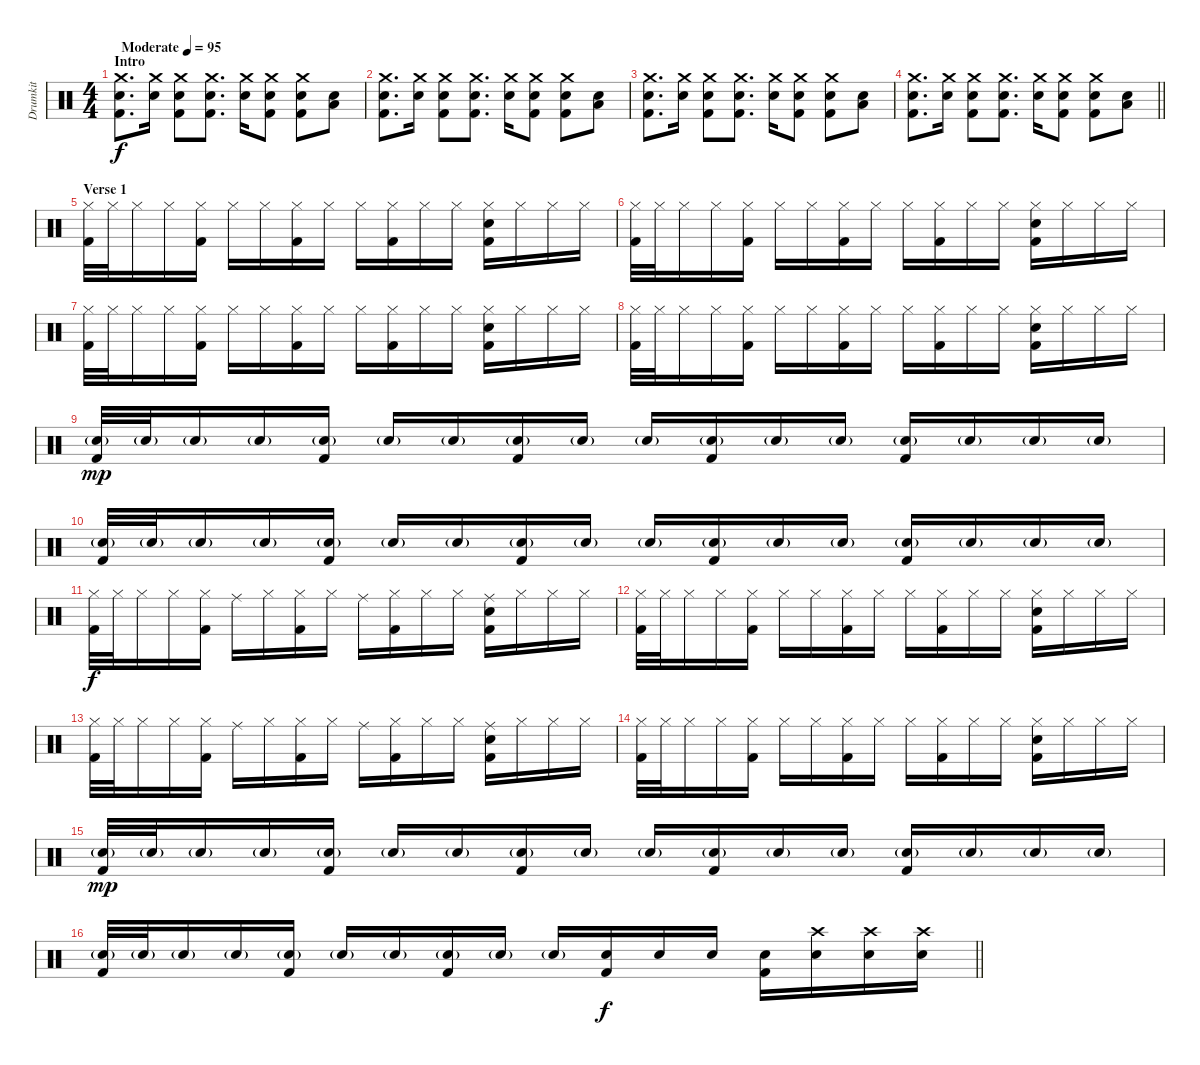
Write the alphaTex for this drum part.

\track ("Drumkit" "Drumkit") {instrument percussion}
\staff {score}
\articulation defaults
\ts (4 4)
\section ("" "Intro")
\tempo (95 "Moderate")
\clef neutral
\ks c
("Crash medium (hit)" "Snare (hit) 2" "Kick (hit) 2").8{d dy f} ("Crash medium (hit)" "Snare (hit) 2").16 ("Crash medium (hit)" "Snare (hit) 2" "Kick (hit) 2").8 ("Crash medium (hit)" "Snare (hit) 2" "Kick (hit) 2").8{d} ("Crash medium (hit)" "Snare (hit) 2").16 ("Crash medium (hit)" "Snare (hit) 2" "Kick (hit) 2").8 ("Crash medium (hit)" "Snare (hit) 2" "Kick (hit) 2").8 ("Low Floor Tom (hit)" "Snare (hit) 2").8 |
("Crash medium (hit)" "Snare (hit) 2" "Kick (hit) 2").8{d} ("Crash medium (hit)" "Snare (hit) 2").16 ("Crash medium (hit)" "Snare (hit) 2" "Kick (hit) 2").8 ("Crash medium (hit)" "Snare (hit) 2" "Kick (hit) 2").8{d} ("Crash medium (hit)" "Snare (hit) 2").16 ("Crash medium (hit)" "Snare (hit) 2" "Kick (hit) 2").8 ("Crash medium (hit)" "Snare (hit) 2" "Kick (hit) 2").8 ("Snare (hit) 2" "Low Floor Tom (hit)").8 |
("Crash medium (hit)" "Snare (hit) 2" "Kick (hit) 2").8{d} ("Crash medium (hit)" "Snare (hit) 2").16 ("Crash medium (hit)" "Snare (hit) 2" "Kick (hit) 2").8 ("Crash medium (hit)" "Snare (hit) 2" "Kick (hit) 2").8{d} ("Crash medium (hit)" "Snare (hit) 2").16 ("Crash medium (hit)" "Snare (hit) 2" "Kick (hit) 2").8 ("Crash medium (hit)" "Snare (hit) 2" "Kick (hit) 2").8 ("Low Floor Tom (hit)" "Snare (hit) 2").8 |
\barLineRight lightlight
("Crash medium (hit)" "Snare (hit) 2" "Kick (hit) 2").8{d} ("Crash medium (hit)" "Snare (hit) 2").16 ("Crash medium (hit)" "Snare (hit) 2" "Kick (hit) 2").8 ("Crash medium (hit)" "Snare (hit) 2" "Kick (hit) 2").8{d} ("Crash medium (hit)" "Snare (hit) 2").16 ("Crash medium (hit)" "Snare (hit) 2" "Kick (hit) 2").8 ("Crash medium (hit)" "Snare (hit) 2" "Kick (hit) 2").8 ("Snare (hit) 2" "Low Floor Tom (hit)").8 |
\section ("" "Verse 1")
("Hi-Hat (closed)" "Kick (hit) 2").32 "Hi-Hat (closed)".32 "Hi-Hat (closed)".16 "Hi-Hat (closed)".16 ("Hi-Hat (closed)" "Kick (hit) 2").16 "Hi-Hat (closed)".16 "Hi-Hat (closed)".16 ("Hi-Hat (closed)" "Kick (hit) 2").16 "Hi-Hat (closed)".16 "Hi-Hat (closed)".16 ("Hi-Hat (closed)" "Kick (hit) 2").16 "Hi-Hat (closed)".16 "Hi-Hat (closed)".16 ("Hi-Hat (closed)" "Snare (hit) 2" "Kick (hit) 2").16 "Hi-Hat (closed)".16 "Hi-Hat (closed)".16 "Hi-Hat (closed)".16 |
("Hi-Hat (closed)" "Kick (hit) 2").32 "Hi-Hat (closed)".32 "Hi-Hat (closed)".16 "Hi-Hat (closed)".16 ("Hi-Hat (closed)" "Kick (hit) 2").16 "Hi-Hat (closed)".16 "Hi-Hat (closed)".16 ("Hi-Hat (closed)" "Kick (hit) 2").16 "Hi-Hat (closed)".16 "Hi-Hat (closed)".16 ("Hi-Hat (closed)" "Kick (hit) 2").16 "Hi-Hat (closed)".16 "Hi-Hat (closed)".16 ("Hi-Hat (closed)" "Snare (hit) 2" "Kick (hit) 2").16 "Hi-Hat (closed)".16 "Hi-Hat (closed)".16 "Hi-Hat (closed)".16 |
("Hi-Hat (closed)" "Kick (hit) 2").32 "Hi-Hat (closed)".32 "Hi-Hat (closed)".16 "Hi-Hat (closed)".16 ("Hi-Hat (closed)" "Kick (hit) 2").16 "Hi-Hat (closed)".16 "Hi-Hat (closed)".16 ("Hi-Hat (closed)" "Kick (hit) 2").16 "Hi-Hat (closed)".16 "Hi-Hat (closed)".16 ("Hi-Hat (closed)" "Kick (hit) 2").16 "Hi-Hat (closed)".16 "Hi-Hat (closed)".16 ("Hi-Hat (closed)" "Snare (hit) 2" "Kick (hit) 2").16 "Hi-Hat (closed)".16 "Hi-Hat (closed)".16 "Hi-Hat (closed)".16 |
("Hi-Hat (closed)" "Kick (hit) 2").32 "Hi-Hat (closed)".32 "Hi-Hat (closed)".16 "Hi-Hat (closed)".16 ("Hi-Hat (closed)" "Kick (hit) 2").16 "Hi-Hat (closed)".16 "Hi-Hat (closed)".16 ("Hi-Hat (closed)" "Kick (hit) 2").16 "Hi-Hat (closed)".16 "Hi-Hat (closed)".16 ("Hi-Hat (closed)" "Kick (hit) 2").16 "Hi-Hat (closed)".16 "Hi-Hat (closed)".16 ("Hi-Hat (closed)" "Snare (hit) 2" "Kick (hit) 2").16 "Hi-Hat (closed)".16 "Hi-Hat (closed)".16 "Hi-Hat (closed)".16 |
("Snare (hit) 2"{g} "Kick (hit) 2").32{dy mp} "Snare (hit) 2"{g}.32 "Snare (hit) 2"{g}.16 "Snare (hit) 2"{g}.16 ("Snare (hit) 2"{g} "Kick (hit) 2").16 "Snare (hit) 2"{g}.16 "Snare (hit) 2"{g}.16 ("Snare (hit) 2"{g} "Kick (hit) 2").16 "Snare (hit) 2"{g}.16 "Snare (hit) 2"{g}.16 ("Snare (hit) 2"{g} "Kick (hit) 2").16 "Snare (hit) 2"{g}.16 "Snare (hit) 2"{g}.16 ("Snare (hit) 2"{g} "Kick (hit) 2").16 "Snare (hit) 2"{g}.16 "Snare (hit) 2"{g}.16 "Snare (hit) 2"{g}.16 |
("Snare (hit) 2"{g} "Kick (hit) 2").32 "Snare (hit) 2"{g}.32 "Snare (hit) 2"{g}.16 "Snare (hit) 2"{g}.16 ("Snare (hit) 2"{g} "Kick (hit) 2").16 "Snare (hit) 2"{g}.16 "Snare (hit) 2"{g}.16 ("Snare (hit) 2"{g} "Kick (hit) 2").16 "Snare (hit) 2"{g}.16 "Snare (hit) 2"{g}.16 ("Snare (hit) 2"{g} "Kick (hit) 2").16 "Snare (hit) 2"{g}.16 "Snare (hit) 2"{g}.16 ("Snare (hit) 2"{g} "Kick (hit) 2").16 "Snare (hit) 2"{g}.16 "Snare (hit) 2"{g}.16 "Snare (hit) 2"{g}.16 |
("Hi-Hat (closed)" "Kick (hit) 2").32{dy f} "Hi-Hat (closed)".32 "Hi-Hat (closed)".16 "Hi-Hat (closed)".16 ("Hi-Hat (closed)" "Kick (hit) 2").16 "Ride (middle)".16 "Hi-Hat (closed)".16 ("Hi-Hat (closed)" "Kick (hit) 2").16 "Hi-Hat (closed)".16 "Ride (middle)".16 ("Hi-Hat (closed)" "Kick (hit) 2").16 "Hi-Hat (closed)".16 "Hi-Hat (closed)".16 ("Ride (middle)" "Snare (hit) 2" "Kick (hit) 2").16 "Hi-Hat (closed)".16 "Hi-Hat (closed)".16 "Hi-Hat (closed)".16 |
("Hi-Hat (closed)" "Kick (hit) 2").32 "Hi-Hat (closed)".32 "Hi-Hat (closed)".16 "Hi-Hat (closed)".16 ("Hi-Hat (closed)" "Kick (hit) 2").16 "Hi-Hat (closed)".16 "Hi-Hat (closed)".16 ("Hi-Hat (closed)" "Kick (hit) 2").16 "Hi-Hat (closed)".16 "Hi-Hat (closed)".16 ("Hi-Hat (closed)" "Kick (hit) 2").16 "Hi-Hat (closed)".16 "Hi-Hat (closed)".16 ("Hi-Hat (closed)" "Snare (hit) 2" "Kick (hit) 2").16 "Hi-Hat (closed)".16 "Hi-Hat (closed)".16 "Hi-Hat (closed)".16 |
("Hi-Hat (closed)" "Kick (hit) 2").32 "Hi-Hat (closed)".32 "Hi-Hat (closed)".16 "Hi-Hat (closed)".16 ("Hi-Hat (closed)" "Kick (hit) 2").16 "Ride (middle)".16 "Hi-Hat (closed)".16 ("Hi-Hat (closed)" "Kick (hit) 2").16 "Hi-Hat (closed)".16 "Ride (middle)".16 ("Hi-Hat (closed)" "Kick (hit) 2").16 "Hi-Hat (closed)".16 "Hi-Hat (closed)".16 ("Ride (middle)" "Snare (hit) 2" "Kick (hit) 2").16 "Hi-Hat (closed)".16 "Hi-Hat (closed)".16 "Hi-Hat (closed)".16 |
("Hi-Hat (closed)" "Kick (hit) 2").32 "Hi-Hat (closed)".32 "Hi-Hat (closed)".16 "Hi-Hat (closed)".16 ("Hi-Hat (closed)" "Kick (hit) 2").16 "Hi-Hat (closed)".16 "Hi-Hat (closed)".16 ("Hi-Hat (closed)" "Kick (hit) 2").16 "Hi-Hat (closed)".16 "Hi-Hat (closed)".16 ("Hi-Hat (closed)" "Kick (hit) 2").16 "Hi-Hat (closed)".16 "Hi-Hat (closed)".16 ("Hi-Hat (closed)" "Snare (hit) 2" "Kick (hit) 2").16 "Hi-Hat (closed)".16 "Hi-Hat (closed)".16 "Hi-Hat (closed)".16 |
("Snare (hit) 2"{g} "Kick (hit) 2").32{dy mp} "Snare (hit) 2"{g}.32 "Snare (hit) 2"{g}.16 "Snare (hit) 2"{g}.16 ("Snare (hit) 2"{g} "Kick (hit) 2").16 "Snare (hit) 2"{g}.16 "Snare (hit) 2"{g}.16 ("Snare (hit) 2"{g} "Kick (hit) 2").16 "Snare (hit) 2"{g}.16 "Snare (hit) 2"{g}.16 ("Snare (hit) 2"{g} "Kick (hit) 2").16 "Snare (hit) 2"{g}.16 "Snare (hit) 2"{g}.16 ("Snare (hit) 2"{g} "Kick (hit) 2").16 "Snare (hit) 2"{g}.16 "Snare (hit) 2"{g}.16 "Snare (hit) 2"{g}.16 |
\barLineRight lightlight
("Snare (hit) 2"{g} "Kick (hit) 2").32 "Snare (hit) 2"{g}.32 "Snare (hit) 2"{g}.16 "Snare (hit) 2"{g}.16 ("Snare (hit) 2"{g} "Kick (hit) 2").16 "Snare (hit) 2"{g}.16 "Snare (hit) 2"{g}.16 ("Snare (hit) 2"{g} "Kick (hit) 2").16 "Snare (hit) 2"{g}.16 "Snare (hit) 2"{g}.16 ("Snare (hit) 2" "Kick (hit) 2").16{dy f} "Snare (hit) 2".16 "Snare (hit) 2".16 ("Snare (hit) 2" "Kick (hit) 2").16 ("Snare (hit) 2" "Crash high (hit)").16 ("Snare (hit) 2" "Crash high (hit)").16 ("Snare (hit) 2" "Crash high (hit)").16
